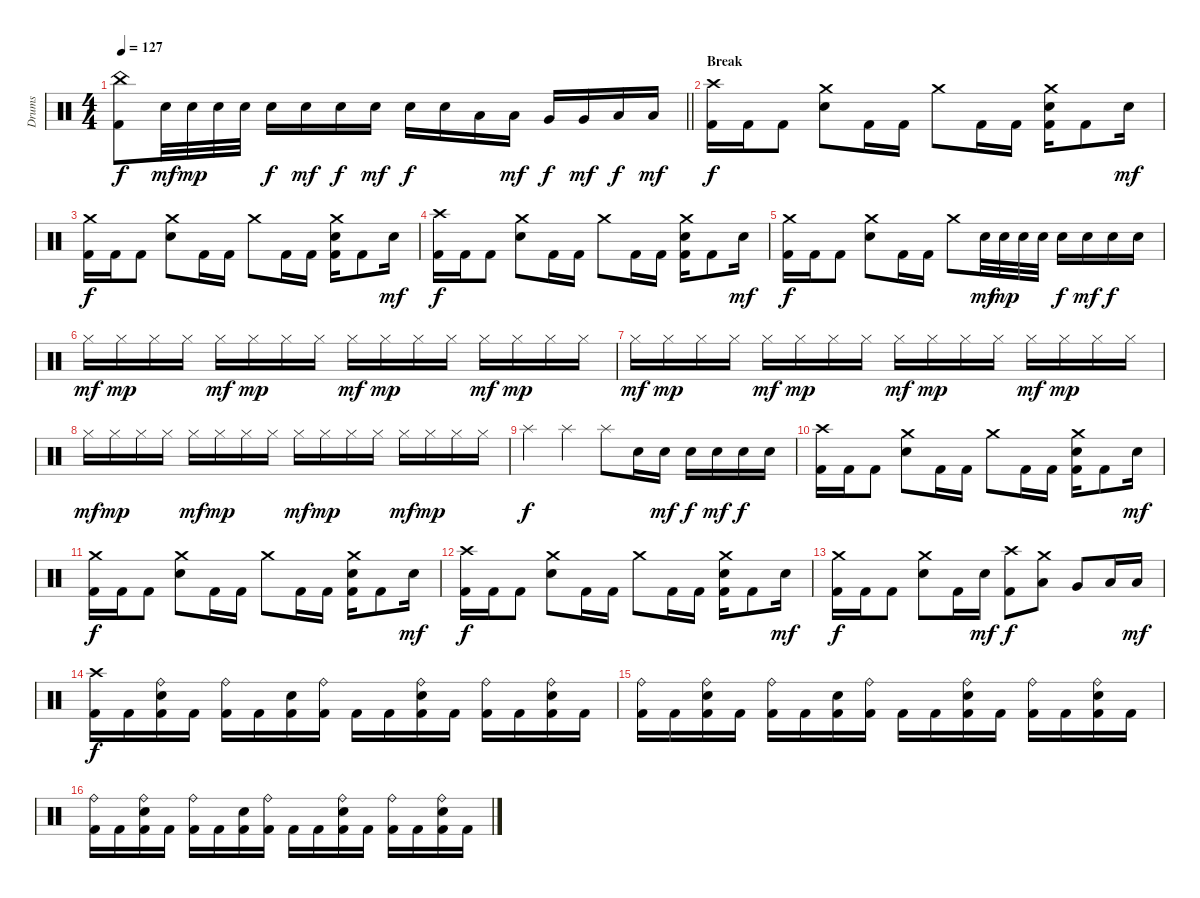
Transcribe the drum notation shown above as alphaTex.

\track ("Drums" "Drums") {instrument percussion}
\staff {score}
\articulation defaults
\ts (4 4)
\tempo 127
\clef neutral
\barLineRight lightlight
\ks c
("Kick (hit) 2" "China (hit)").8{dy f} "Electric Snare (hit)".32{dy mf} "Electric Snare (hit)".32{dy mp} "Electric Snare (hit)".32 "Electric Snare (hit)".32 "Electric Snare (hit)".16{dy f} "Electric Snare (hit)".16{dy mf} "Electric Snare (hit)".16{dy f} "Electric Snare (hit)".16{dy mf} "Electric Snare (hit)".16{dy f} "Electric Snare (hit)".16 "Low Tom (hit)".16 "Low Tom (hit)".16{dy mf} "Very Low Tom (hit)".16{dy f} "Very Low Tom (hit)".16{dy mf} "Low Floor Tom (hit)".16{dy f} "Low Floor Tom (hit)".16{dy mf} |
\section ("" "Break")
("Kick (hit) 2" "Crash high (hit)").16{dy f} "Kick (hit) 2".16 "Kick (hit) 2".8 ("Crash medium (hit)" "Electric Snare (hit)").8 "Kick (hit) 2".16 "Kick (hit) 2".16 "Crash medium (hit)".8 "Kick (hit) 2".16 "Kick (hit) 2".16 ("Kick (hit) 2" "Crash medium (hit)" "Electric Snare (hit)").16 "Kick (hit) 2".8 "Electric Snare (hit)".16{dy mf} |
("Kick (hit) 2" "Crash medium (hit)").16{dy f} "Kick (hit) 2".16 "Kick (hit) 2".8 ("Crash medium (hit)" "Electric Snare (hit)").8 "Kick (hit) 2".16 "Kick (hit) 2".16 "Crash medium (hit)".8 "Kick (hit) 2".16 "Kick (hit) 2".16 ("Kick (hit) 2" "Crash medium (hit)" "Electric Snare (hit)").16 "Kick (hit) 2".8 "Electric Snare (hit)".16{dy mf} |
("Kick (hit) 2" "Crash high (hit)").16{dy f} "Kick (hit) 2".16 "Kick (hit) 2".8 ("Crash medium (hit)" "Electric Snare (hit)").8 "Kick (hit) 2".16 "Kick (hit) 2".16 "Crash medium (hit)".8 "Kick (hit) 2".16 "Kick (hit) 2".16 ("Kick (hit) 2" "Crash medium (hit)" "Electric Snare (hit)").16 "Kick (hit) 2".8 "Electric Snare (hit)".16{dy mf} |
("Kick (hit) 2" "Crash medium (hit)").16{dy f} "Kick (hit) 2".16 "Kick (hit) 2".8 ("Crash medium (hit)" "Electric Snare (hit)").8 "Kick (hit) 2".16 "Kick (hit) 2".16 "Crash medium (hit)".8 "Electric Snare (hit)".32{dy mf} "Electric Snare (hit)".32{dy mp} "Electric Snare (hit)".32 "Electric Snare (hit)".32 "Electric Snare (hit)".16{dy f} "Electric Snare (hit)".16{dy mf} "Electric Snare (hit)".16{dy f} "Electric Snare (hit)".16 |
"Hi-Hat (closed)".16{dy mf} "Hi-Hat (closed)".16{dy mp} "Hi-Hat (closed)".16 "Hi-Hat (closed)".16 "Hi-Hat (closed)".16{dy mf} "Hi-Hat (closed)".16{dy mp} "Hi-Hat (closed)".16 "Hi-Hat (closed)".16 "Hi-Hat (closed)".16{dy mf} "Hi-Hat (closed)".16{dy mp} "Hi-Hat (closed)".16 "Hi-Hat (closed)".16 "Hi-Hat (closed)".16{dy mf} "Hi-Hat (closed)".16{dy mp} "Hi-Hat (closed)".16 "Hi-Hat (closed)".16 |
"Hi-Hat (closed)".16{dy mf} "Hi-Hat (closed)".16{dy mp} "Hi-Hat (closed)".16 "Hi-Hat (closed)".16 "Hi-Hat (closed)".16{dy mf} "Hi-Hat (closed)".16{dy mp} "Hi-Hat (closed)".16 "Hi-Hat (closed)".16 "Hi-Hat (closed)".16{dy mf} "Hi-Hat (closed)".16{dy mp} "Hi-Hat (closed)".16 "Hi-Hat (closed)".16 "Hi-Hat (closed)".16{dy mf} "Hi-Hat (closed)".16{dy mp} "Hi-Hat (closed)".16 "Hi-Hat (closed)".16 |
"Hi-Hat (closed)".16{dy mf} "Hi-Hat (closed)".16{dy mp} "Hi-Hat (closed)".16 "Hi-Hat (closed)".16 "Hi-Hat (closed)".16{dy mf} "Hi-Hat (closed)".16{dy mp} "Hi-Hat (closed)".16 "Hi-Hat (closed)".16 "Hi-Hat (closed)".16{dy mf} "Hi-Hat (closed)".16{dy mp} "Hi-Hat (closed)".16 "Hi-Hat (closed)".16 "Hi-Hat (closed)".16{dy mf} "Hi-Hat (closed)".16{dy mp} "Hi-Hat (closed)".16 "Hi-Hat (closed)".16 |
"Splash (hit)".4{dy f} "Splash (hit)".4 "Splash (hit)".8 "Electric Snare (hit)".16 "Electric Snare (hit)".16{dy mf} "Electric Snare (hit)".16{dy f} "Electric Snare (hit)".16{dy mf} "Electric Snare (hit)".16{dy f} "Electric Snare (hit)".16 |
("Kick (hit) 2" "Crash high (hit)").16 "Kick (hit) 2".16 "Kick (hit) 2".8 ("Crash medium (hit)" "Electric Snare (hit)").8 "Kick (hit) 2".16 "Kick (hit) 2".16 "Crash medium (hit)".8 "Kick (hit) 2".16 "Kick (hit) 2".16 ("Kick (hit) 2" "Crash medium (hit)" "Electric Snare (hit)").16 "Kick (hit) 2".8 "Electric Snare (hit)".16{dy mf} |
("Kick (hit) 2" "Crash medium (hit)").16{dy f} "Kick (hit) 2".16 "Kick (hit) 2".8 ("Crash medium (hit)" "Electric Snare (hit)").8 "Kick (hit) 2".16 "Kick (hit) 2".16 "Crash medium (hit)".8 "Kick (hit) 2".16 "Kick (hit) 2".16 ("Kick (hit) 2" "Crash medium (hit)" "Electric Snare (hit)").16 "Kick (hit) 2".8 "Electric Snare (hit)".16{dy mf} |
("Kick (hit) 2" "Crash high (hit)").16{dy f} "Kick (hit) 2".16 "Kick (hit) 2".8 ("Crash medium (hit)" "Electric Snare (hit)").8 "Kick (hit) 2".16 "Kick (hit) 2".16 "Crash medium (hit)".8 "Kick (hit) 2".16 "Kick (hit) 2".16 ("Kick (hit) 2" "Crash medium (hit)" "Electric Snare (hit)").16 "Kick (hit) 2".8 "Electric Snare (hit)".16{dy mf} |
("Kick (hit) 2" "Crash medium (hit)").16{dy f} "Kick (hit) 2".16 "Kick (hit) 2".8 ("Crash medium (hit)" "Electric Snare (hit)").8 "Kick (hit) 2".16 "Electric Snare (hit)".16{dy mf} ("Kick (hit) 2" "Crash high (hit)").8{dy f} ("Crash medium (hit)" "Low Tom (hit)").8 "Very Low Tom (hit)".8 "Low Floor Tom (hit)".16 "Low Floor Tom (hit)".16{dy mf} |
("Kick (hit) 2" "Crash high (hit)").16{dy f} "Kick (hit) 2".16 ("Kick (hit) 2" "Ride (bell)" "Electric Snare (hit)").16 "Kick (hit) 2".16 ("Kick (hit) 2" "Ride (bell)").16 "Kick (hit) 2".16 ("Kick (hit) 2" "Electric Snare (hit)").16 ("Kick (hit) 2" "Ride (bell)").16 "Kick (hit) 2".16 "Kick (hit) 2".16 ("Kick (hit) 2" "Ride (bell)" "Electric Snare (hit)").16 "Kick (hit) 2".16 ("Kick (hit) 2" "Ride (bell)").16 "Kick (hit) 2".16 ("Kick (hit) 2" "Ride (bell)" "Electric Snare (hit)").16 "Kick (hit) 2".16 |
("Kick (hit) 2" "Ride (bell)").16 "Kick (hit) 2".16 ("Kick (hit) 2" "Ride (bell)" "Electric Snare (hit)").16 "Kick (hit) 2".16 ("Kick (hit) 2" "Ride (bell)").16 "Kick (hit) 2".16 ("Kick (hit) 2" "Electric Snare (hit)").16 ("Kick (hit) 2" "Ride (bell)").16 "Kick (hit) 2".16 "Kick (hit) 2".16 ("Kick (hit) 2" "Ride (bell)" "Electric Snare (hit)").16 "Kick (hit) 2".16 ("Kick (hit) 2" "Ride (bell)").16 "Kick (hit) 2".16 ("Kick (hit) 2" "Ride (bell)" "Electric Snare (hit)").16 "Kick (hit) 2".16 |
("Kick (hit) 2" "Ride (bell)").16 "Kick (hit) 2".16 ("Kick (hit) 2" "Ride (bell)" "Electric Snare (hit)").16 "Kick (hit) 2".16 ("Kick (hit) 2" "Ride (bell)").16 "Kick (hit) 2".16 ("Kick (hit) 2" "Electric Snare (hit)").16 ("Kick (hit) 2" "Ride (bell)").16 "Kick (hit) 2".16 "Kick (hit) 2".16 ("Kick (hit) 2" "Ride (bell)" "Electric Snare (hit)").16 "Kick (hit) 2".16 ("Kick (hit) 2" "Ride (bell)").16 "Kick (hit) 2".16 ("Kick (hit) 2" "Ride (bell)" "Electric Snare (hit)").16 "Kick (hit) 2".16
